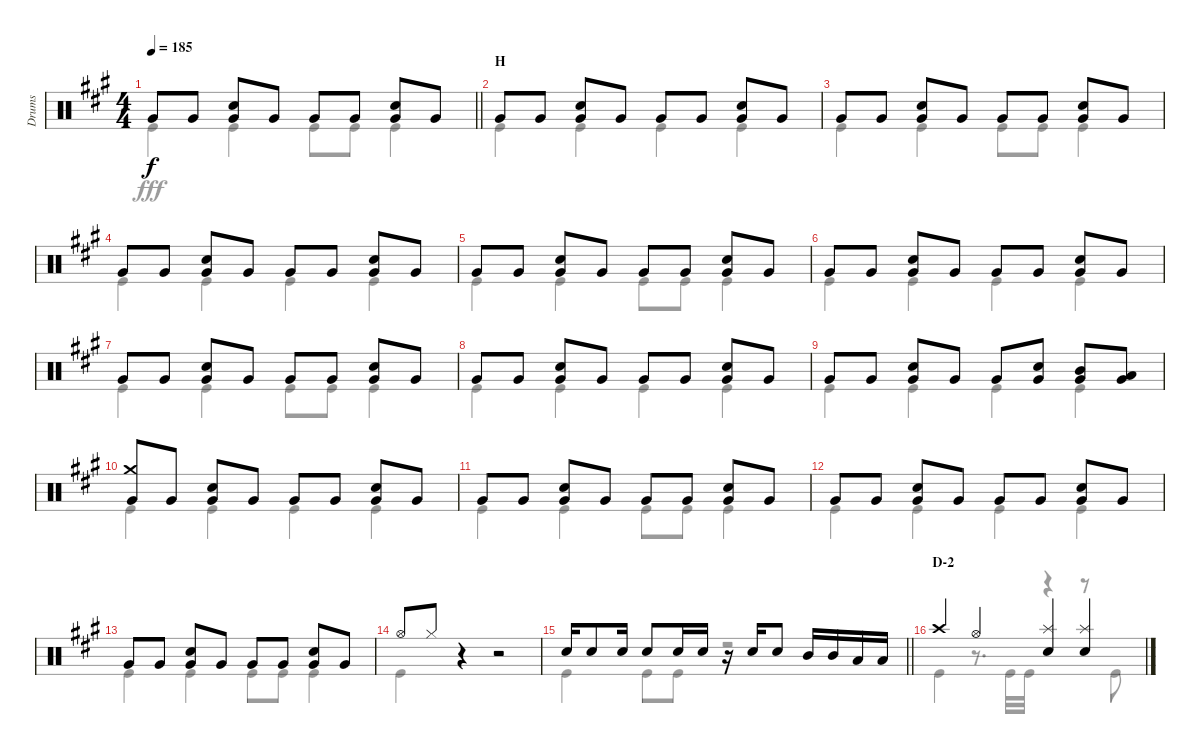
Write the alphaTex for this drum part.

\track ("Drums" "Drums") {instrument percussion}
\staff {score}
\articulation defaults
\voice
\ts (4 4)
\tempo 185
\clef neutral
\barLineRight lightlight
\ks a "Very Low Tom (hit)".8{dy f} "Very Low Tom (hit)".8
("Snare (hit) 2" "Very Low Tom (hit)").8 "Very Low Tom (hit)".8 "Very Low Tom (hit)".8 "Very Low Tom (hit)".8 ("Snare (hit) 2" "Very Low Tom (hit)").8 "Very Low Tom (hit)".8 |
\section ("" "H")
"Very Low Tom (hit)".8 "Very Low Tom (hit)".8 ("Snare (hit) 2" "Very Low Tom (hit)").8 "Very Low Tom (hit)".8 "Very Low Tom (hit)".8 "Very Low Tom (hit)".8 ("Snare (hit) 2" "Very Low Tom (hit)").8 "Very Low Tom (hit)".8 |
"Very Low Tom (hit)".8 "Very Low Tom (hit)".8 ("Snare (hit) 2" "Very Low Tom (hit)").8 "Very Low Tom (hit)".8 "Very Low Tom (hit)".8 "Very Low Tom (hit)".8 ("Snare (hit) 2" "Very Low Tom (hit)").8 "Very Low Tom (hit)".8 |
"Very Low Tom (hit)".8 "Very Low Tom (hit)".8 ("Snare (hit) 2" "Very Low Tom (hit)").8 "Very Low Tom (hit)".8 "Very Low Tom (hit)".8 "Very Low Tom (hit)".8 ("Snare (hit) 2" "Very Low Tom (hit)").8 "Very Low Tom (hit)".8 |
"Very Low Tom (hit)".8 "Very Low Tom (hit)".8 ("Snare (hit) 2" "Very Low Tom (hit)").8 "Very Low Tom (hit)".8 "Very Low Tom (hit)".8 "Very Low Tom (hit)".8 ("Snare (hit) 2" "Very Low Tom (hit)").8 "Very Low Tom (hit)".8 |
"Very Low Tom (hit)".8 "Very Low Tom (hit)".8 ("Snare (hit) 2" "Very Low Tom (hit)").8 "Very Low Tom (hit)".8 "Very Low Tom (hit)".8 "Very Low Tom (hit)".8 ("Snare (hit) 2" "Very Low Tom (hit)").8 "Very Low Tom (hit)".8 |
"Very Low Tom (hit)".8 "Very Low Tom (hit)".8 ("Snare (hit) 2" "Very Low Tom (hit)").8 "Very Low Tom (hit)".8 "Very Low Tom (hit)".8 "Very Low Tom (hit)".8 ("Snare (hit) 2" "Very Low Tom (hit)").8 "Very Low Tom (hit)".8 |
"Very Low Tom (hit)".8 "Very Low Tom (hit)".8 ("Snare (hit) 2" "Very Low Tom (hit)").8 "Very Low Tom (hit)".8 "Very Low Tom (hit)".8 "Very Low Tom (hit)".8 ("Snare (hit) 2" "Very Low Tom (hit)").8 "Very Low Tom (hit)".8 |
"Very Low Tom (hit)".8 "Very Low Tom (hit)".8 ("Snare (hit) 2" "Very Low Tom (hit)").8 "Very Low Tom (hit)".8 "Very Low Tom (hit)".8 ("Snare (hit) 2" "Very Low Tom (hit)").8 ("Mid Tom (hit)" "Very Low Tom (hit)").8 ("Low Tom (hit)" "Very Low Tom (hit)").8 |
("Crash medium (hit)" "Very Low Tom (hit)").8 "Very Low Tom (hit)".8 ("Snare (hit) 2" "Very Low Tom (hit)").8 "Very Low Tom (hit)".8 "Very Low Tom (hit)".8 "Very Low Tom (hit)".8 ("Snare (hit) 2" "Very Low Tom (hit)").8 "Very Low Tom (hit)".8 |
"Very Low Tom (hit)".8 "Very Low Tom (hit)".8 ("Snare (hit) 2" "Very Low Tom (hit)").8 "Very Low Tom (hit)".8 "Very Low Tom (hit)".8 "Very Low Tom (hit)".8 ("Snare (hit) 2" "Very Low Tom (hit)").8 "Very Low Tom (hit)".8 |
"Very Low Tom (hit)".8 "Very Low Tom (hit)".8 ("Snare (hit) 2" "Very Low Tom (hit)").8 "Very Low Tom (hit)".8 "Very Low Tom (hit)".8 "Very Low Tom (hit)".8 ("Snare (hit) 2" "Very Low Tom (hit)").8 "Very Low Tom (hit)".8 |
"Very Low Tom (hit)".8 "Very Low Tom (hit)".8 ("Snare (hit) 2" "Very Low Tom (hit)").8 "Very Low Tom (hit)".8 "Very Low Tom (hit)".8 "Very Low Tom (hit)".8 ("Snare (hit) 2" "Very Low Tom (hit)").8 "Very Low Tom (hit)".8 |
"Hi-Hat (open)".8 "Hi-Hat (closed)".8 r.4 r.2 |
\barLineRight lightlight "Snare (hit) 2".16 "Snare (hit) 2".8 "Snare (hit) 2".16 "Snare (hit) 2".8 "Snare (hit) 2".16 "Snare (hit) 2".16
r.16 "Snare (hit) 2".16 "Snare (hit) 2".8 "Mid Tom (hit)".16 "Mid Tom (hit)".16 "Low Tom (hit)".16 "Low Tom (hit)".16 |
\section ("" "D-2")
"Crash high (hit)".4 "Hi-Hat (open)".4 ("Splash (hit)" "Snare (hit) 2").4 ("Splash (hit)" "Snare (hit) 2").4
\voice
\clef neutral
\ottava regular
\simile none
\barLineRight lightlight
\ks a "Kick (hit)".4{dy fff} "Kick (hit)".4 "Kick (hit)".8 "Kick (hit)".8 "Kick (hit)".4
|
"Kick (hit)".4 "Kick (hit)".4 "Kick (hit)".4 "Kick (hit)".4 |
"Kick (hit)".4 "Kick (hit)".4 "Kick (hit)".8 "Kick (hit)".8 "Kick (hit)".4 |
"Kick (hit)".4 "Kick (hit)".4 "Kick (hit)".4 "Kick (hit)".4 |
"Kick (hit)".4 "Kick (hit)".4 "Kick (hit)".8 "Kick (hit)".8 "Kick (hit)".4 |
"Kick (hit)".4 "Kick (hit)".4 "Kick (hit)".4 "Kick (hit)".4 |
"Kick (hit)".4 "Kick (hit)".4 "Kick (hit)".8 "Kick (hit)".8 "Kick (hit)".4 |
"Kick (hit)".4 "Kick (hit)".4 "Kick (hit)".4 "Kick (hit)".4 |
"Kick (hit)".4 "Kick (hit)".4 "Kick (hit)".4 "Kick (hit)".4 |
"Kick (hit)".4 "Kick (hit)".4 "Kick (hit)".4 "Kick (hit)".4 |
"Kick (hit)".4 "Kick (hit)".4 "Kick (hit)".8 "Kick (hit)".8 "Kick (hit)".4 |
"Kick (hit)".4 "Kick (hit)".4 "Kick (hit)".4 "Kick (hit)".4 |
"Kick (hit)".4 "Kick (hit)".4 "Kick (hit)".8 "Kick (hit)".8 "Kick (hit)".4 |
"Kick (hit)".4 r.4 r.2 |
\barLineRight lightlight "Kick (hit)".4 "Kick (hit)".8 "Kick (hit)".8
r.2 |
"Kick (hit)".4 r.8{d} "Kick (hit)".32 "Kick (hit)".32 r.4 r.8 "Kick (hit)".8
